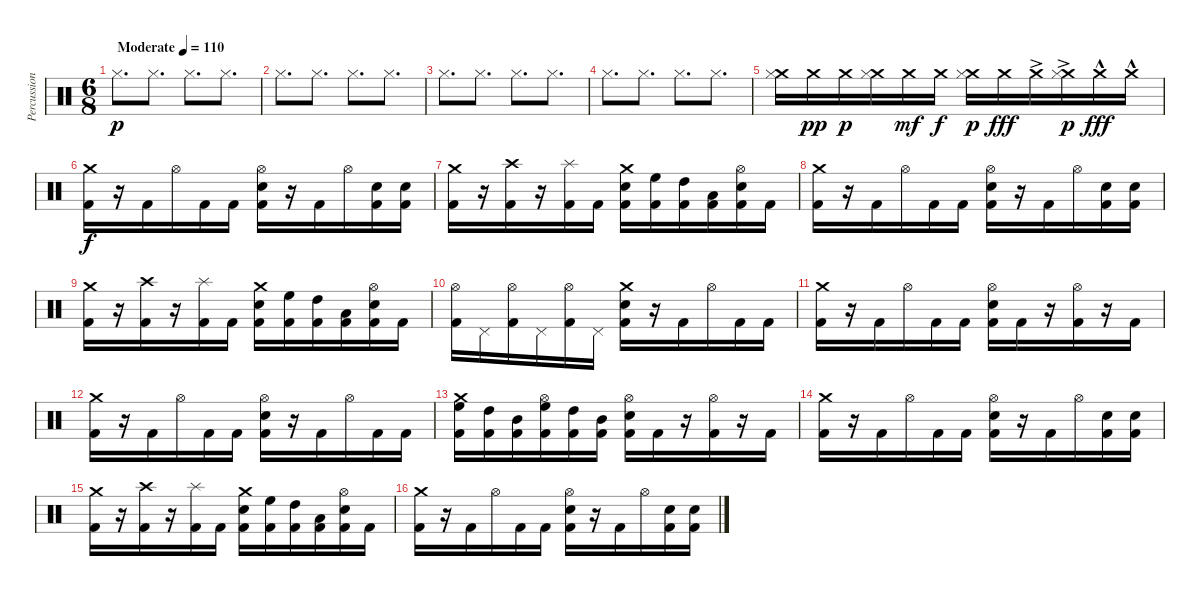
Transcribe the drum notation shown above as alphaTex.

\track ("Percussion" "Percussion") {instrument percussion}
\staff {score}
\articulation defaults
\ts (6 8)
\tempo (110 "Moderate")
\clef neutral
\ks c "Hi-Hat (closed)".8{d dy p} "Hi-Hat (closed)".8{d} "Hi-Hat (closed)".8{d} "Hi-Hat (closed)".8{d}
|
"Hi-Hat (closed)".8{d} "Hi-Hat (closed)".8{d} "Hi-Hat (closed)".8{d} "Hi-Hat (closed)".8{d} |
"Hi-Hat (closed)".8{d} "Hi-Hat (closed)".8{d} "Hi-Hat (closed)".8{d} "Hi-Hat (closed)".8{d} |
"Hi-Hat (closed)".8{d} "Hi-Hat (closed)".8{d} "Hi-Hat (closed)".8{d} "Hi-Hat (closed)".8{d} |
("Crash medium (hit)" "Hi-Hat (closed)").16 "Crash medium (hit)".16{dy pp} "Crash medium (hit)".16{dy p} ("Crash medium (hit)" "Hi-Hat (closed)").16 "Crash medium (hit)".16{dy mf} "Crash medium (hit)".16{dy f} ("Crash medium (hit)" "Hi-Hat (closed)").16{dy p} "Crash medium (hit)".16{dy fff} "Crash medium (hit)"{ac}.16 ("Crash medium (hit)"{ac} "Hi-Hat (closed)").16{dy p} "Crash medium (hit)"{hac}.16{dy fff} "Crash medium (hit)"{hac}.16 |
("Crash medium (hit)" "Kick (hit) 2").16{dy f} r.16 "Kick (hit) 2".16 "Hi-Hat (open)".16 "Kick (hit) 2".16 "Kick (hit) 2".16 ("Hi-Hat (open)" "Snare (hit) 2" "Kick (hit) 2").16 r.16 "Kick (hit) 2".16 "Hi-Hat (open)".16 ("Snare (hit) 2" "Kick (hit) 2").16 ("Snare (hit) 2" "Kick (hit) 2").16 |
("Crash medium (hit)" "Kick (hit) 2").16 r.16 ("Crash high (hit)" "Kick (hit) 2").16 r.16 ("Splash (hit)" "Kick (hit) 2").16 "Kick (hit) 2".16 ("Crash medium (hit)" "Snare (hit) 2" "Kick (hit) 2").16 ("High Floor Tom (hit)" "Kick (hit) 2").16 ("High Tom (hit)" "Kick (hit) 2").16 ("Low Tom (hit)" "Kick (hit) 2").16 ("Hi-Hat (open)" "Snare (hit) 2" "Kick (hit) 2").16 "Kick (hit) 2".16 |
("Crash medium (hit)" "Kick (hit) 2").16 r.16 "Kick (hit) 2".16 "Hi-Hat (open)".16 "Kick (hit) 2".16 "Kick (hit) 2".16 ("Hi-Hat (open)" "Snare (hit) 2" "Kick (hit) 2").16 r.16 "Kick (hit) 2".16 "Hi-Hat (open)".16 ("Snare (hit) 2" "Kick (hit) 2").16 ("Snare (hit) 2" "Kick (hit) 2").16 |
("Crash medium (hit)" "Kick (hit) 2").16 r.16 ("Crash high (hit)" "Kick (hit) 2").16 r.16 ("Splash (hit)" "Kick (hit) 2").16 "Kick (hit) 2".16 ("Crash medium (hit)" "Snare (hit) 2" "Kick (hit) 2").16 ("High Floor Tom (hit)" "Kick (hit) 2").16 ("High Tom (hit)" "Kick (hit) 2").16 ("Low Tom (hit)" "Kick (hit) 2").16 ("Hi-Hat (open)" "Snare (hit) 2" "Kick (hit) 2").16 "Kick (hit) 2".16 |
("Hi-Hat (open)" "Kick (hit) 2").16 "Pedal Hi-Hat (hit)".16 ("Hi-Hat (open)" "Kick (hit) 2").16 "Pedal Hi-Hat (hit)".16 ("Hi-Hat (open)" "Kick (hit) 2").16 "Pedal Hi-Hat (hit)".16 ("Crash medium (hit)" "Snare (hit) 2" "Kick (hit) 2").16 r.16 "Kick (hit) 2".16 "Hi-Hat (open)".16 "Kick (hit) 2".16 "Kick (hit) 2".16 |
("Crash medium (hit)" "Kick (hit) 2").16 r.16 "Kick (hit) 2".16 "Hi-Hat (open)".16 "Kick (hit) 2".16 "Kick (hit) 2".16 ("Hi-Hat (open)" "Snare (hit) 2" "Kick (hit) 2").16 "Kick (hit) 2".16 r.16 ("Hi-Hat (open)" "Kick (hit) 2").16 r.16 "Kick (hit) 2".16 |
("Crash medium (hit)" "Kick (hit) 2").16 r.16 "Kick (hit) 2".16 "Hi-Hat (open)".16 "Kick (hit) 2".16 "Kick (hit) 2".16 ("Hi-Hat (open)" "Snare (hit) 2" "Kick (hit) 2").16 r.16 "Kick (hit) 2".16 "Hi-Hat (open)".16 "Kick (hit) 2".16 "Kick (hit) 2".16 |
("Crash medium (hit)" "High Floor Tom (hit)" "Kick (hit) 2").16 ("High Tom (hit)" "Kick (hit) 2").16 ("Mid Tom (hit)" "Kick (hit) 2").16 ("Hi-Hat (open)" "High Floor Tom (hit)" "Kick (hit) 2").16 ("High Tom (hit)" "Kick (hit) 2").16 ("Mid Tom (hit)" "Kick (hit) 2").16 ("Hi-Hat (open)" "Snare (hit) 2" "Kick (hit) 2").16 "Kick (hit) 2".16 r.16 ("Hi-Hat (open)" "Kick (hit) 2").16 r.16 "Kick (hit) 2".16 |
("Crash medium (hit)" "Kick (hit) 2").16 r.16 "Kick (hit) 2".16 "Hi-Hat (open)".16 "Kick (hit) 2".16 "Kick (hit) 2".16 ("Hi-Hat (open)" "Snare (hit) 2" "Kick (hit) 2").16 r.16 "Kick (hit) 2".16 "Hi-Hat (open)".16 ("Snare (hit) 2" "Kick (hit) 2").16 ("Snare (hit) 2" "Kick (hit) 2").16 |
("Crash medium (hit)" "Kick (hit) 2").16 r.16 ("Crash high (hit)" "Kick (hit) 2").16 r.16 ("Splash (hit)" "Kick (hit) 2").16 "Kick (hit) 2".16 ("Crash medium (hit)" "Snare (hit) 2" "Kick (hit) 2").16 ("High Floor Tom (hit)" "Kick (hit) 2").16 ("High Tom (hit)" "Kick (hit) 2").16 ("Low Tom (hit)" "Kick (hit) 2").16 ("Hi-Hat (open)" "Snare (hit) 2" "Kick (hit) 2").16 "Kick (hit) 2".16 |
("Crash medium (hit)" "Kick (hit) 2").16 r.16 "Kick (hit) 2".16 "Hi-Hat (open)".16 "Kick (hit) 2".16 "Kick (hit) 2".16 ("Hi-Hat (open)" "Snare (hit) 2" "Kick (hit) 2").16 r.16 "Kick (hit) 2".16 "Hi-Hat (open)".16 ("Snare (hit) 2" "Kick (hit) 2").16 ("Snare (hit) 2" "Kick (hit) 2").16
